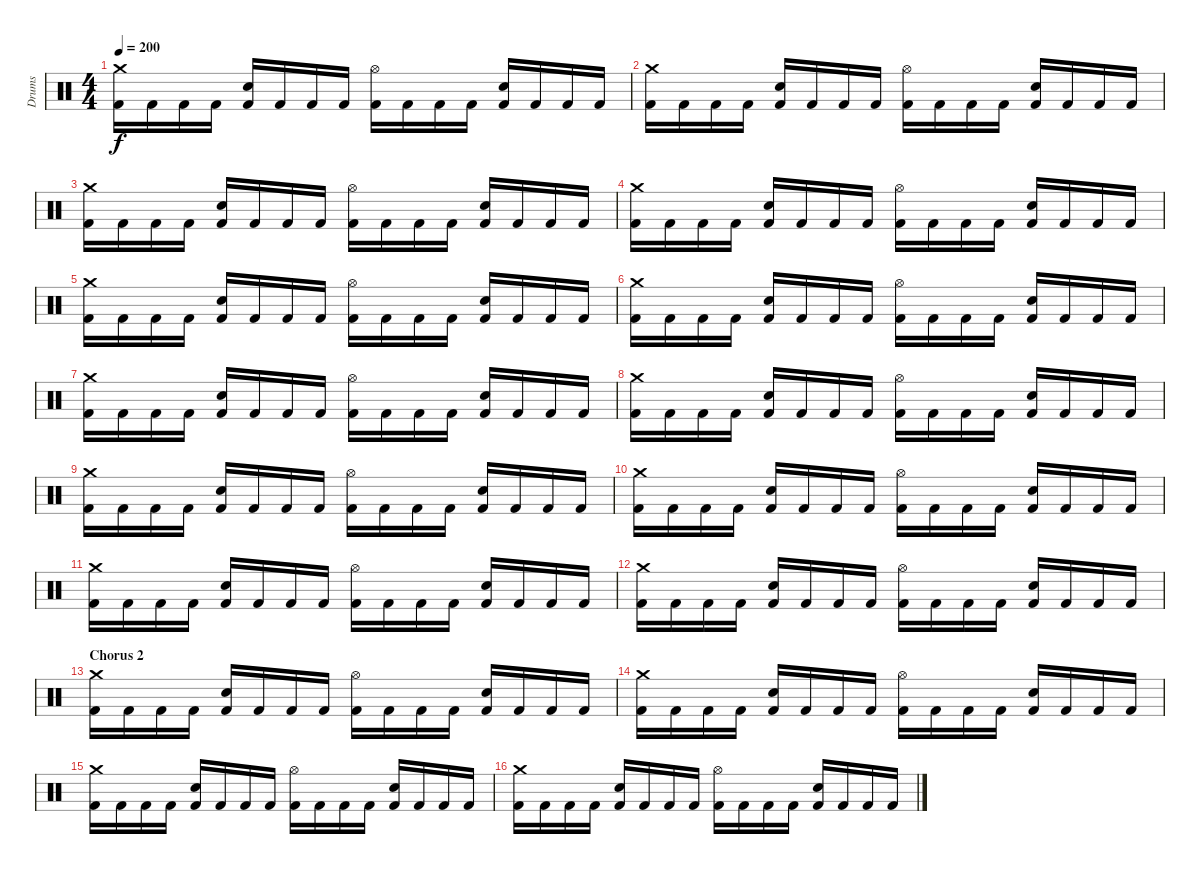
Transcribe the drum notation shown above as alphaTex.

\track ("Drums" "Drums") {instrument percussion}
\staff {score}
\articulation defaults
\ts (4 4)
\tempo 200
\clef neutral
\ks c
("Kick (hit) 2" "Crash medium (hit)").16{dy f} "Kick (hit) 2".16 "Kick (hit) 2".16 "Kick (hit) 2".16 ("Kick (hit) 2" "Snare (hit) 2").16 "Kick (hit) 2".16 "Kick (hit) 2".16 "Kick (hit) 2".16 ("Kick (hit) 2" "Hi-Hat (open)").16 "Kick (hit) 2".16 "Kick (hit) 2".16 "Kick (hit) 2".16 ("Kick (hit) 2" "Snare (hit) 2").16 "Kick (hit) 2".16 "Kick (hit) 2".16 "Kick (hit) 2".16 |
("Kick (hit) 2" "Crash medium (hit)").16 "Kick (hit) 2".16 "Kick (hit) 2".16 "Kick (hit) 2".16 ("Kick (hit) 2" "Snare (hit) 2").16 "Kick (hit) 2".16 "Kick (hit) 2".16 "Kick (hit) 2".16 ("Kick (hit) 2" "Hi-Hat (open)").16 "Kick (hit) 2".16 "Kick (hit) 2".16 "Kick (hit) 2".16 ("Kick (hit) 2" "Snare (hit) 2").16 "Kick (hit) 2".16 "Kick (hit) 2".16 "Kick (hit) 2".16 |
("Kick (hit) 2" "Crash medium (hit)").16 "Kick (hit) 2".16 "Kick (hit) 2".16 "Kick (hit) 2".16 ("Kick (hit) 2" "Snare (hit) 2").16 "Kick (hit) 2".16 "Kick (hit) 2".16 "Kick (hit) 2".16 ("Kick (hit) 2" "Hi-Hat (open)").16 "Kick (hit) 2".16 "Kick (hit) 2".16 "Kick (hit) 2".16 ("Kick (hit) 2" "Snare (hit) 2").16 "Kick (hit) 2".16 "Kick (hit) 2".16 "Kick (hit) 2".16 |
("Kick (hit) 2" "Crash medium (hit)").16 "Kick (hit) 2".16 "Kick (hit) 2".16 "Kick (hit) 2".16 ("Kick (hit) 2" "Snare (hit) 2").16 "Kick (hit) 2".16 "Kick (hit) 2".16 "Kick (hit) 2".16 ("Kick (hit) 2" "Hi-Hat (open)").16 "Kick (hit) 2".16 "Kick (hit) 2".16 "Kick (hit) 2".16 ("Kick (hit) 2" "Snare (hit) 2").16 "Kick (hit) 2".16 "Kick (hit) 2".16 "Kick (hit) 2".16 |
("Kick (hit) 2" "Crash medium (hit)").16 "Kick (hit) 2".16 "Kick (hit) 2".16 "Kick (hit) 2".16 ("Kick (hit) 2" "Snare (hit) 2").16 "Kick (hit) 2".16 "Kick (hit) 2".16 "Kick (hit) 2".16 ("Kick (hit) 2" "Hi-Hat (open)").16 "Kick (hit) 2".16 "Kick (hit) 2".16 "Kick (hit) 2".16 ("Kick (hit) 2" "Snare (hit) 2").16 "Kick (hit) 2".16 "Kick (hit) 2".16 "Kick (hit) 2".16 |
("Kick (hit) 2" "Crash medium (hit)").16 "Kick (hit) 2".16 "Kick (hit) 2".16 "Kick (hit) 2".16 ("Kick (hit) 2" "Snare (hit) 2").16 "Kick (hit) 2".16 "Kick (hit) 2".16 "Kick (hit) 2".16 ("Kick (hit) 2" "Hi-Hat (open)").16 "Kick (hit) 2".16 "Kick (hit) 2".16 "Kick (hit) 2".16 ("Kick (hit) 2" "Snare (hit) 2").16 "Kick (hit) 2".16 "Kick (hit) 2".16 "Kick (hit) 2".16 |
("Kick (hit) 2" "Crash medium (hit)").16 "Kick (hit) 2".16 "Kick (hit) 2".16 "Kick (hit) 2".16 ("Kick (hit) 2" "Snare (hit) 2").16 "Kick (hit) 2".16 "Kick (hit) 2".16 "Kick (hit) 2".16 ("Kick (hit) 2" "Hi-Hat (open)").16 "Kick (hit) 2".16 "Kick (hit) 2".16 "Kick (hit) 2".16 ("Kick (hit) 2" "Snare (hit) 2").16 "Kick (hit) 2".16 "Kick (hit) 2".16 "Kick (hit) 2".16 |
("Kick (hit) 2" "Crash medium (hit)").16 "Kick (hit) 2".16 "Kick (hit) 2".16 "Kick (hit) 2".16 ("Kick (hit) 2" "Snare (hit) 2").16 "Kick (hit) 2".16 "Kick (hit) 2".16 "Kick (hit) 2".16 ("Kick (hit) 2" "Hi-Hat (open)").16 "Kick (hit) 2".16 "Kick (hit) 2".16 "Kick (hit) 2".16 ("Kick (hit) 2" "Snare (hit) 2").16 "Kick (hit) 2".16 "Kick (hit) 2".16 "Kick (hit) 2".16 |
("Kick (hit) 2" "Crash medium (hit)").16 "Kick (hit) 2".16 "Kick (hit) 2".16 "Kick (hit) 2".16 ("Kick (hit) 2" "Snare (hit) 2").16 "Kick (hit) 2".16 "Kick (hit) 2".16 "Kick (hit) 2".16 ("Kick (hit) 2" "Hi-Hat (open)").16 "Kick (hit) 2".16 "Kick (hit) 2".16 "Kick (hit) 2".16 ("Kick (hit) 2" "Snare (hit) 2").16 "Kick (hit) 2".16 "Kick (hit) 2".16 "Kick (hit) 2".16 |
("Kick (hit) 2" "Crash medium (hit)").16 "Kick (hit) 2".16 "Kick (hit) 2".16 "Kick (hit) 2".16 ("Kick (hit) 2" "Snare (hit) 2").16 "Kick (hit) 2".16 "Kick (hit) 2".16 "Kick (hit) 2".16 ("Kick (hit) 2" "Hi-Hat (open)").16 "Kick (hit) 2".16 "Kick (hit) 2".16 "Kick (hit) 2".16 ("Kick (hit) 2" "Snare (hit) 2").16 "Kick (hit) 2".16 "Kick (hit) 2".16 "Kick (hit) 2".16 |
("Kick (hit) 2" "Crash medium (hit)").16 "Kick (hit) 2".16 "Kick (hit) 2".16 "Kick (hit) 2".16 ("Kick (hit) 2" "Snare (hit) 2").16 "Kick (hit) 2".16 "Kick (hit) 2".16 "Kick (hit) 2".16 ("Kick (hit) 2" "Hi-Hat (open)").16 "Kick (hit) 2".16 "Kick (hit) 2".16 "Kick (hit) 2".16 ("Kick (hit) 2" "Snare (hit) 2").16 "Kick (hit) 2".16 "Kick (hit) 2".16 "Kick (hit) 2".16 |
("Kick (hit) 2" "Crash medium (hit)").16 "Kick (hit) 2".16 "Kick (hit) 2".16 "Kick (hit) 2".16 ("Kick (hit) 2" "Snare (hit) 2").16 "Kick (hit) 2".16 "Kick (hit) 2".16 "Kick (hit) 2".16 ("Kick (hit) 2" "Hi-Hat (open)").16 "Kick (hit) 2".16 "Kick (hit) 2".16 "Kick (hit) 2".16 ("Kick (hit) 2" "Snare (hit) 2").16 "Kick (hit) 2".16 "Kick (hit) 2".16 "Kick (hit) 2".16 |
\section ("" "Chorus 2")
("Kick (hit) 2" "Crash medium (hit)").16 "Kick (hit) 2".16 "Kick (hit) 2".16 "Kick (hit) 2".16 ("Kick (hit) 2" "Snare (hit) 2").16 "Kick (hit) 2".16 "Kick (hit) 2".16 "Kick (hit) 2".16 ("Kick (hit) 2" "Hi-Hat (open)").16 "Kick (hit) 2".16 "Kick (hit) 2".16 "Kick (hit) 2".16 ("Kick (hit) 2" "Snare (hit) 2").16 "Kick (hit) 2".16 "Kick (hit) 2".16 "Kick (hit) 2".16 |
("Kick (hit) 2" "Crash medium (hit)").16 "Kick (hit) 2".16 "Kick (hit) 2".16 "Kick (hit) 2".16 ("Kick (hit) 2" "Snare (hit) 2").16 "Kick (hit) 2".16 "Kick (hit) 2".16 "Kick (hit) 2".16 ("Kick (hit) 2" "Hi-Hat (open)").16 "Kick (hit) 2".16 "Kick (hit) 2".16 "Kick (hit) 2".16 ("Kick (hit) 2" "Snare (hit) 2").16 "Kick (hit) 2".16 "Kick (hit) 2".16 "Kick (hit) 2".16 |
("Kick (hit) 2" "Crash medium (hit)").16 "Kick (hit) 2".16 "Kick (hit) 2".16 "Kick (hit) 2".16 ("Kick (hit) 2" "Snare (hit) 2").16 "Kick (hit) 2".16 "Kick (hit) 2".16 "Kick (hit) 2".16 ("Kick (hit) 2" "Hi-Hat (open)").16 "Kick (hit) 2".16 "Kick (hit) 2".16 "Kick (hit) 2".16 ("Kick (hit) 2" "Snare (hit) 2").16 "Kick (hit) 2".16 "Kick (hit) 2".16 "Kick (hit) 2".16 |
("Kick (hit) 2" "Crash medium (hit)").16 "Kick (hit) 2".16 "Kick (hit) 2".16 "Kick (hit) 2".16 ("Kick (hit) 2" "Snare (hit) 2").16 "Kick (hit) 2".16 "Kick (hit) 2".16 "Kick (hit) 2".16 ("Kick (hit) 2" "Hi-Hat (open)").16 "Kick (hit) 2".16 "Kick (hit) 2".16 "Kick (hit) 2".16 ("Kick (hit) 2" "Snare (hit) 2").16 "Kick (hit) 2".16 "Kick (hit) 2".16 "Kick (hit) 2".16
